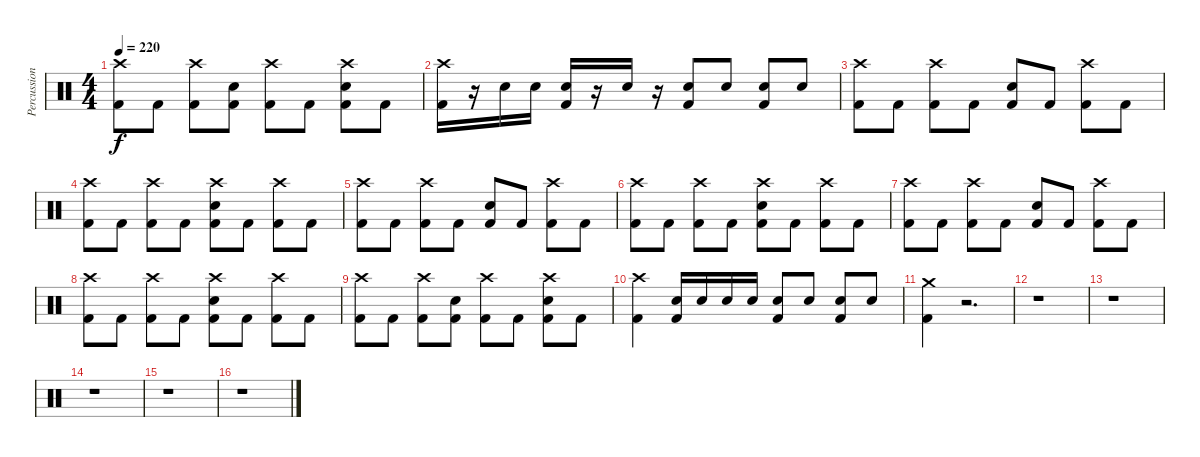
\track ("Percussion (Dan Wilding)" "Percussion") {instrument percussion}
\staff {score}
\articulation defaults
\ts (4 4)
\tempo 220
\clef neutral
\ks c
("Crash high (hit)" "Kick (hit) 2").8{dy f} "Kick (hit) 2".8 ("Crash high (hit)" "Kick (hit) 2").8 ("Electric Snare (hit)" "Kick (hit) 2").8 ("Crash high (hit)" "Kick (hit) 2").8 "Kick (hit) 2".8 ("Crash high (hit)" "Electric Snare (hit)" "Kick (hit) 2").8 "Kick (hit) 2".8 |
("Crash high (hit)" "Kick (hit) 2").16 r.16 "Electric Snare (hit)".16 "Electric Snare (hit)".16 ("Electric Snare (hit)" "Kick (hit) 2").16 r.16 "Electric Snare (hit)".16 r.16 ("Electric Snare (hit)" "Kick (hit) 2").8 "Electric Snare (hit)".8 ("Electric Snare (hit)" "Kick (hit) 2").8 "Electric Snare (hit)".8 |
("Crash high (hit)" "Kick (hit) 2").8 "Kick (hit) 2".8 ("Crash high (hit)" "Kick (hit) 2").8 "Kick (hit) 2".8 ("Electric Snare (hit)" "Kick (hit) 2").8 "Kick (hit) 2".8 ("Crash high (hit)" "Kick (hit) 2").8 "Kick (hit) 2".8 |
("Crash high (hit)" "Kick (hit) 2").8 "Kick (hit) 2".8 ("Crash high (hit)" "Kick (hit) 2").8 "Kick (hit) 2".8 ("Crash high (hit)" "Electric Snare (hit)" "Kick (hit) 2").8 "Kick (hit) 2".8 ("Crash high (hit)" "Kick (hit) 2").8 "Kick (hit) 2".8 |
("Crash high (hit)" "Kick (hit) 2").8 "Kick (hit) 2".8 ("Crash high (hit)" "Kick (hit) 2").8 "Kick (hit) 2".8 ("Electric Snare (hit)" "Kick (hit) 2").8 "Kick (hit) 2".8 ("Crash high (hit)" "Kick (hit) 2").8 "Kick (hit) 2".8 |
("Crash high (hit)" "Kick (hit) 2").8 "Kick (hit) 2".8 ("Crash high (hit)" "Kick (hit) 2").8 "Kick (hit) 2".8 ("Crash high (hit)" "Electric Snare (hit)" "Kick (hit) 2").8 "Kick (hit) 2".8 ("Crash high (hit)" "Kick (hit) 2").8 "Kick (hit) 2".8 |
("Crash high (hit)" "Kick (hit) 2").8 "Kick (hit) 2".8 ("Crash high (hit)" "Kick (hit) 2").8 "Kick (hit) 2".8 ("Electric Snare (hit)" "Kick (hit) 2").8 "Kick (hit) 2".8 ("Crash high (hit)" "Kick (hit) 2").8 "Kick (hit) 2".8 |
("Crash high (hit)" "Kick (hit) 2").8 "Kick (hit) 2".8 ("Crash high (hit)" "Kick (hit) 2").8 "Kick (hit) 2".8 ("Crash high (hit)" "Electric Snare (hit)" "Kick (hit) 2").8 "Kick (hit) 2".8 ("Crash high (hit)" "Kick (hit) 2").8 "Kick (hit) 2".8 |
("Crash high (hit)" "Kick (hit) 2").8 "Kick (hit) 2".8 ("Crash high (hit)" "Kick (hit) 2").8 ("Electric Snare (hit)" "Kick (hit) 2").8 ("Crash high (hit)" "Kick (hit) 2").8 "Kick (hit) 2".8 ("Crash high (hit)" "Electric Snare (hit)" "Kick (hit) 2").8 "Kick (hit) 2".8 |
("Crash high (hit)" "Kick (hit) 2").4 ("Electric Snare (hit)" "Kick (hit) 2").16 "Electric Snare (hit)".16 "Electric Snare (hit)".16 "Electric Snare (hit)".16 ("Electric Snare (hit)" "Kick (hit) 2").8 "Electric Snare (hit)".8 ("Electric Snare (hit)" "Kick (hit) 2").8 "Electric Snare (hit)".8 |
("Crash medium (hit)" "Kick (hit) 2").4 r.2{d} |
r.1 |
r.1 |
r.1 |
r.1 |
r.1
